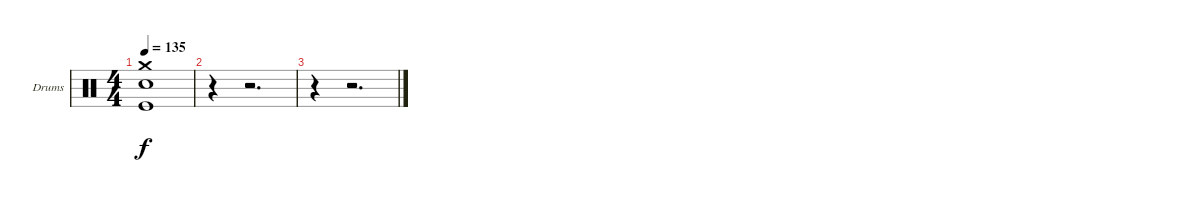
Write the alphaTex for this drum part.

\bracketExtendMode groupsimilarinstruments
\firstSystemTrackNameOrientation horizontal
\otherSystemsTrackNameOrientation horizontal
\track ("Drumkit" "Drums") {instrument percussion}
\staff {score}
\articulation defaults
\ts (4 4)
\tempo 135
\clef neutral
\ks c
("Crash medium (hit)" "Kick (hit)" "Snare (hit) 2").1{dy f} |
r.4 r.2{d} |
r.4 r.2{d}
